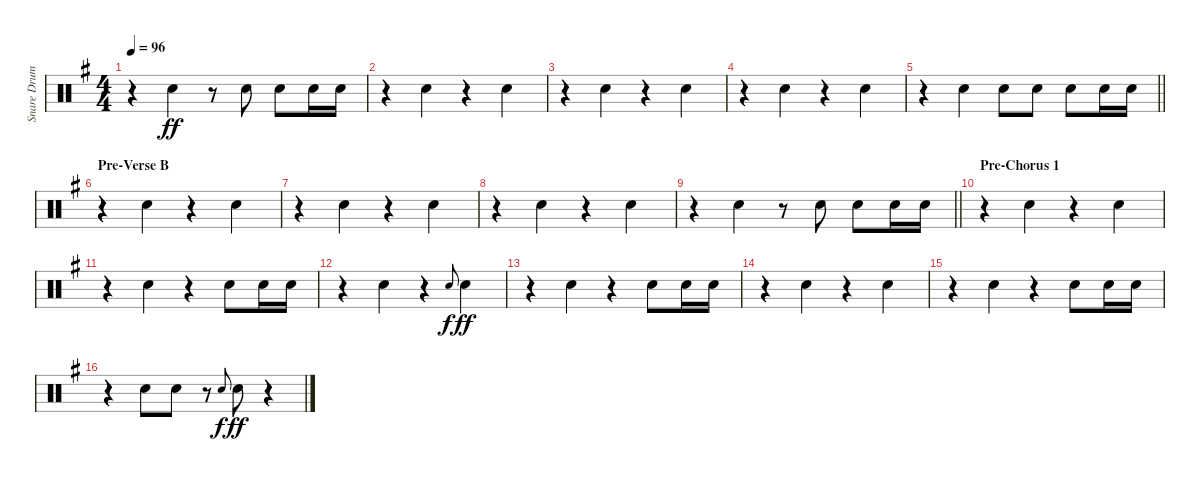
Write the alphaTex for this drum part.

\track ("Snare Drum" "Snare Drum") {instrument percussion}
\staff {score}
\articulation defaults
\ts (4 4)
\tempo 96
\clef neutral
\ks g
r.4{dy ff beam merge} "Electric Snare (hit)".4 r.8 "Electric Snare (hit)".8 "Electric Snare (hit)".8 "Electric Snare (hit)".16 "Electric Snare (hit)".16 |
r.4{beam merge} "Electric Snare (hit)".4 r.4{beam merge} "Electric Snare (hit)".4 |
r.4{beam merge} "Electric Snare (hit)".4 r.4{beam merge} "Electric Snare (hit)".4 |
r.4{beam merge} "Electric Snare (hit)".4 r.4{beam merge} "Electric Snare (hit)".4 |
\barLineRight lightlight
r.4 "Electric Snare (hit)".4 "Electric Snare (hit)".8 "Electric Snare (hit)".8 "Electric Snare (hit)".8 "Electric Snare (hit)".16 "Electric Snare (hit)".16 |
\section ("" "Pre-Verse B")
r.4{beam merge} "Electric Snare (hit)".4 r.4{beam merge} "Electric Snare (hit)".4 |
r.4{beam merge} "Electric Snare (hit)".4 r.4{beam merge} "Electric Snare (hit)".4 |
r.4{beam merge} "Electric Snare (hit)".4 r.4{beam merge} "Electric Snare (hit)".4 |
\barLineRight lightlight
r.4{beam merge} "Electric Snare (hit)".4 r.8 "Electric Snare (hit)".8 "Electric Snare (hit)".8 "Electric Snare (hit)".16 "Electric Snare (hit)".16 |
\section ("" "Pre-Chorus 1")
r.4{beam merge} "Electric Snare (hit)".4 r.4{beam merge} "Electric Snare (hit)".4 |
r.4{beam merge} "Electric Snare (hit)".4 r.4{beam merge} "Electric Snare (hit)".8 "Electric Snare (hit)".16 "Electric Snare (hit)".16 |
r.4{beam merge} "Electric Snare (hit)".4 r.4 "Electric Snare (hit)".8{gr onbeat dy f beam merge} "Electric Snare (hit)".4{dy ff} |
r.4{beam merge} "Electric Snare (hit)".4 r.4{beam merge} "Electric Snare (hit)".8 "Electric Snare (hit)".16 "Electric Snare (hit)".16 |
r.4{beam merge} "Electric Snare (hit)".4 r.4{beam merge} "Electric Snare (hit)".4 |
r.4{beam merge} "Electric Snare (hit)".4 r.4{beam merge} "Electric Snare (hit)".8 "Electric Snare (hit)".16 "Electric Snare (hit)".16 |
r.4{beam merge} "Electric Snare (hit)".8 "Electric Snare (hit)".8 r.8 "Electric Snare (hit)".8{gr onbeat dy f} "Electric Snare (hit)".8{dy ff} r.4
